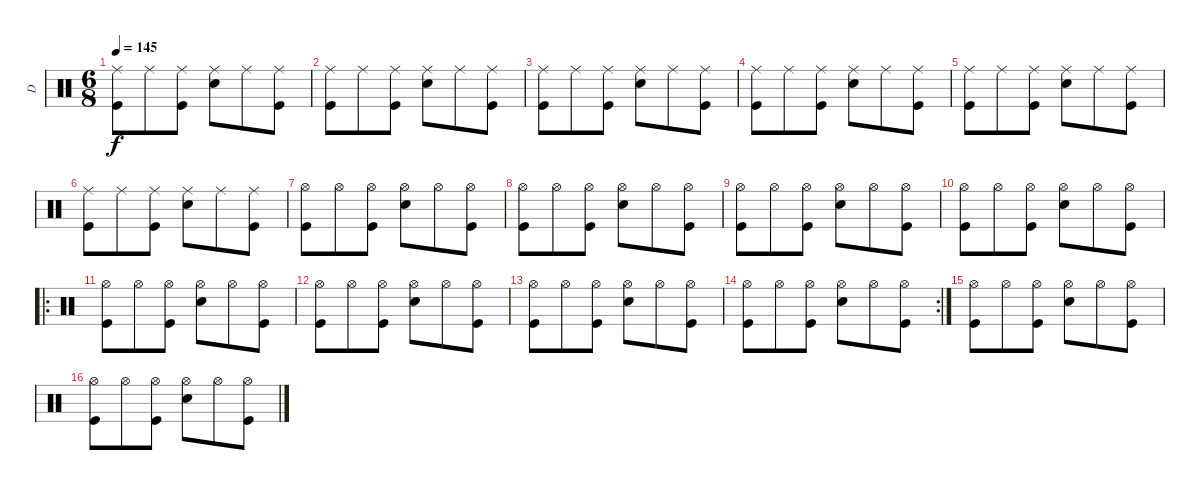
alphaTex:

\track ("D" "D") {instrument percussion}
\staff {score}
\articulation defaults
\ts (6 8)
\tempo 145
\clef neutral
\ks c
("Ride (middle)" "Kick (hit)").8{dy f} "Ride (middle)".8 ("Ride (middle)" "Kick (hit)").8 ("Ride (middle)" "Snare (hit) 2").8 "Ride (middle)".8 ("Ride (middle)" "Kick (hit)").8 |
("Ride (middle)" "Kick (hit)").8 "Ride (middle)".8 ("Ride (middle)" "Kick (hit)").8 ("Ride (middle)" "Snare (hit) 2").8 "Ride (middle)".8 ("Ride (middle)" "Kick (hit)").8 |
("Ride (middle)" "Kick (hit)").8 "Ride (middle)".8 ("Ride (middle)" "Kick (hit)").8 ("Ride (middle)" "Snare (hit) 2").8 "Ride (middle)".8 ("Ride (middle)" "Kick (hit)").8 |
("Ride (middle)" "Kick (hit)").8 "Ride (middle)".8 ("Ride (middle)" "Kick (hit)").8 ("Ride (middle)" "Snare (hit) 2").8 "Ride (middle)".8 ("Ride (middle)" "Kick (hit)").8 |
("Ride (middle)" "Kick (hit)").8 "Ride (middle)".8 ("Ride (middle)" "Kick (hit)").8 ("Ride (middle)" "Snare (hit) 2").8 "Ride (middle)".8 ("Ride (middle)" "Kick (hit)").8 |
("Ride (middle)" "Kick (hit)").8 "Ride (middle)".8 ("Ride (middle)" "Kick (hit)").8 ("Ride (middle)" "Snare (hit) 2").8 "Ride (middle)".8 ("Ride (middle)" "Kick (hit)").8 |
("Hi-Hat (open)" "Kick (hit)").8 "Hi-Hat (open)".8 ("Hi-Hat (open)" "Kick (hit)").8 ("Hi-Hat (open)" "Snare (hit) 2").8 "Hi-Hat (open)".8 ("Hi-Hat (open)" "Kick (hit)").8 |
("Hi-Hat (open)" "Kick (hit)").8 "Hi-Hat (open)".8 ("Hi-Hat (open)" "Kick (hit)").8 ("Hi-Hat (open)" "Snare (hit) 2").8 "Hi-Hat (open)".8 ("Hi-Hat (open)" "Kick (hit)").8 |
("Hi-Hat (open)" "Kick (hit)").8 "Hi-Hat (open)".8 ("Hi-Hat (open)" "Kick (hit)").8 ("Hi-Hat (open)" "Snare (hit) 2").8 "Hi-Hat (open)".8 ("Hi-Hat (open)" "Kick (hit)").8 |
("Hi-Hat (open)" "Kick (hit)").8 "Hi-Hat (open)".8 ("Hi-Hat (open)" "Kick (hit)").8 ("Hi-Hat (open)" "Snare (hit) 2").8 "Hi-Hat (open)".8 ("Hi-Hat (open)" "Kick (hit)").8 |
\ro
("Hi-Hat (open)" "Kick (hit)").8 "Hi-Hat (open)".8 ("Hi-Hat (open)" "Kick (hit)").8 ("Hi-Hat (open)" "Snare (hit) 2").8 "Hi-Hat (open)".8 ("Hi-Hat (open)" "Kick (hit)").8 |
("Hi-Hat (open)" "Kick (hit)").8 "Hi-Hat (open)".8 ("Hi-Hat (open)" "Kick (hit)").8 ("Hi-Hat (open)" "Snare (hit) 2").8 "Hi-Hat (open)".8 ("Hi-Hat (open)" "Kick (hit)").8 |
("Hi-Hat (open)" "Kick (hit)").8 "Hi-Hat (open)".8 ("Hi-Hat (open)" "Kick (hit)").8 ("Hi-Hat (open)" "Snare (hit) 2").8 "Hi-Hat (open)".8 ("Hi-Hat (open)" "Kick (hit)").8 |
\rc 2
("Hi-Hat (open)" "Kick (hit)").8 "Hi-Hat (open)".8 ("Hi-Hat (open)" "Kick (hit)").8 ("Hi-Hat (open)" "Snare (hit) 2").8 "Hi-Hat (open)".8 ("Hi-Hat (open)" "Kick (hit)").8 |
("Hi-Hat (open)" "Kick (hit)").8 "Hi-Hat (open)".8 ("Hi-Hat (open)" "Kick (hit)").8 ("Hi-Hat (open)" "Snare (hit) 2").8 "Hi-Hat (open)".8 ("Hi-Hat (open)" "Kick (hit)").8 |
("Hi-Hat (open)" "Kick (hit)").8 "Hi-Hat (open)".8 ("Hi-Hat (open)" "Kick (hit)").8 ("Hi-Hat (open)" "Snare (hit) 2").8 "Hi-Hat (open)".8 ("Hi-Hat (open)" "Kick (hit)").8
